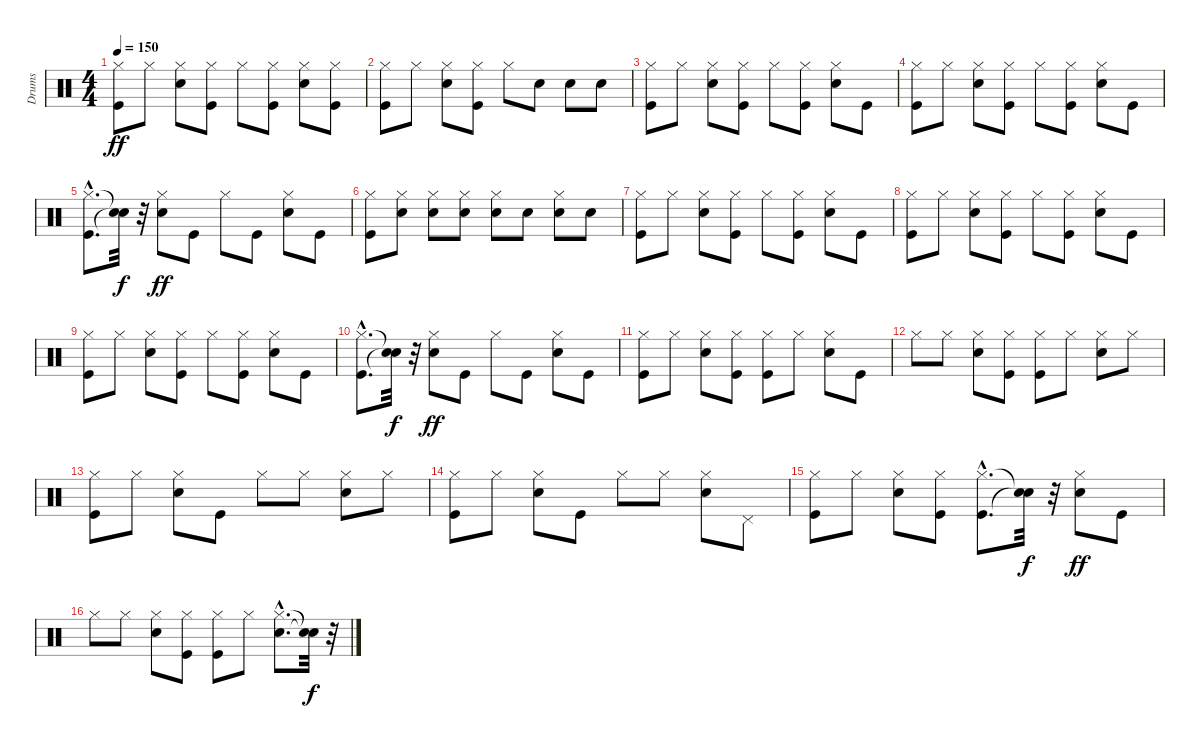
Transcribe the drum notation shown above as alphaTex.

\track ("Drums" "Drums") {instrument percussion}
\staff {score}
\articulation defaults
\ts (4 4)
\tempo 150
\clef neutral
\ks c
("Kick (hit)" "Hi-Hat (closed)").8{dy ff} "Hi-Hat (closed)".8 ("Snare (hit) 2" "Hi-Hat (closed)").8 ("Kick (hit)" "Hi-Hat (closed)").8 "Hi-Hat (closed)".8 ("Kick (hit)" "Hi-Hat (closed)").8 ("Snare (hit) 2" "Hi-Hat (closed)").8 ("Kick (hit)" "Hi-Hat (closed)").8 |
("Kick (hit)" "Hi-Hat (closed)").8 "Hi-Hat (closed)".8 ("Snare (hit) 2" "Hi-Hat (closed)").8 ("Kick (hit)" "Hi-Hat (closed)").8 "Hi-Hat (closed)".8 "Snare (hit) 2".8 "Snare (hit) 2".8 "Snare (hit) 2".8 |
("Kick (hit)" "Hi-Hat (closed)").8 "Hi-Hat (closed)".8 ("Snare (hit) 2" "Hi-Hat (closed)").8 ("Kick (hit)" "Hi-Hat (closed)").8 "Hi-Hat (closed)".8 ("Kick (hit)" "Hi-Hat (closed)").8 ("Snare (hit) 2" "Hi-Hat (closed)").8 "Kick (hit)".8 |
("Kick (hit)" "Hi-Hat (closed)").8 "Hi-Hat (closed)".8 ("Snare (hit) 2" "Hi-Hat (closed)").8 ("Kick (hit)" "Hi-Hat (closed)").8 "Hi-Hat (closed)".8 ("Kick (hit)" "Hi-Hat (closed)").8 ("Snare (hit) 2" "Hi-Hat (closed)").8 "Kick (hit)".8 |
("Kick (hit)"{hac} "Hi-Hat (closed)"{hac}).8{d} ("Snare (hit)"{t} "Snare (hit)"{t}).32{dy f} r.32 ("Snare (hit) 2" "Hi-Hat (closed)").8{dy ff} "Kick (hit)".8 "Hi-Hat (closed)".8 "Kick (hit)".8 ("Snare (hit) 2" "Hi-Hat (closed)").8 "Kick (hit)".8 |
("Kick (hit)" "Hi-Hat (closed)").8 ("Snare (hit) 2" "Hi-Hat (closed)").8 ("Snare (hit) 2" "Hi-Hat (closed)").8 ("Snare (hit) 2" "Hi-Hat (closed)").8 ("Snare (hit) 2" "Hi-Hat (closed)").8 "Snare (hit) 2".8 ("Snare (hit) 2" "Hi-Hat (closed)").8 "Snare (hit) 2".8 |
("Kick (hit)" "Hi-Hat (closed)").8 "Hi-Hat (closed)".8 ("Snare (hit) 2" "Hi-Hat (closed)").8 ("Kick (hit)" "Hi-Hat (closed)").8 "Hi-Hat (closed)".8 ("Kick (hit)" "Hi-Hat (closed)").8 ("Snare (hit) 2" "Hi-Hat (closed)").8 "Kick (hit)".8 |
("Kick (hit)" "Hi-Hat (closed)").8 "Hi-Hat (closed)".8 ("Snare (hit) 2" "Hi-Hat (closed)").8 ("Kick (hit)" "Hi-Hat (closed)").8 "Hi-Hat (closed)".8 ("Kick (hit)" "Hi-Hat (closed)").8 ("Snare (hit) 2" "Hi-Hat (closed)").8 "Kick (hit)".8 |
("Kick (hit)" "Hi-Hat (closed)").8 "Hi-Hat (closed)".8 ("Snare (hit) 2" "Hi-Hat (closed)").8 ("Kick (hit)" "Hi-Hat (closed)").8 "Hi-Hat (closed)".8 ("Kick (hit)" "Hi-Hat (closed)").8 ("Snare (hit) 2" "Hi-Hat (closed)").8 "Kick (hit)".8 |
("Kick (hit)"{hac} "Hi-Hat (closed)"{hac}).8{d} ("Snare (hit)"{t} "Snare (hit)"{t}).32{dy f} r.32 ("Snare (hit) 2" "Hi-Hat (closed)").8{dy ff} "Kick (hit)".8 "Hi-Hat (closed)".8 "Kick (hit)".8 ("Snare (hit) 2" "Hi-Hat (closed)").8 "Kick (hit)".8 |
("Kick (hit)" "Hi-Hat (closed)").8 "Hi-Hat (closed)".8 ("Snare (hit) 2" "Hi-Hat (closed)").8 ("Kick (hit)" "Hi-Hat (closed)").8 ("Kick (hit)" "Hi-Hat (closed)").8 "Hi-Hat (closed)".8 ("Snare (hit) 2" "Hi-Hat (closed)").8 "Kick (hit)".8 |
"Hi-Hat (closed)".8 "Hi-Hat (closed)".8 ("Snare (hit) 2" "Hi-Hat (closed)").8 ("Kick (hit)" "Hi-Hat (closed)").8 ("Kick (hit)" "Hi-Hat (closed)").8 "Hi-Hat (closed)".8 ("Snare (hit) 2" "Hi-Hat (closed)").8 "Hi-Hat (closed)".8 |
("Kick (hit)" "Hi-Hat (closed)").8 "Hi-Hat (closed)".8 ("Snare (hit) 2" "Hi-Hat (closed)").8 "Kick (hit)".8 "Hi-Hat (closed)".8 "Hi-Hat (closed)".8 ("Snare (hit) 2" "Hi-Hat (closed)").8 "Hi-Hat (closed)".8 |
("Kick (hit)" "Hi-Hat (closed)").8 "Hi-Hat (closed)".8 ("Snare (hit) 2" "Hi-Hat (closed)").8 "Kick (hit)".8 "Hi-Hat (closed)".8 "Hi-Hat (closed)".8 ("Snare (hit) 2" "Hi-Hat (closed)").8 "Pedal Hi-Hat (hit)".8 |
("Kick (hit)" "Hi-Hat (closed)").8 "Hi-Hat (closed)".8 ("Snare (hit) 2" "Hi-Hat (closed)").8 ("Kick (hit)" "Hi-Hat (closed)").8 ("Kick (hit)"{hac} "Hi-Hat (closed)"{hac}).8{d} ("Snare (hit)"{t} "Snare (hit)"{t}).32{dy f} r.32 ("Snare (hit) 2" "Hi-Hat (closed)").8{dy ff} "Kick (hit)".8 |
"Hi-Hat (closed)".8 "Hi-Hat (closed)".8 ("Snare (hit) 2" "Hi-Hat (closed)").8 ("Kick (hit)" "Hi-Hat (closed)").8 ("Kick (hit)" "Hi-Hat (closed)").8 "Hi-Hat (closed)".8 ("Snare (hit) 2"{hac} "Hi-Hat (closed)"{hac}).8{d} ("Snare (hit)"{t} "Snare (hit)"{t}).32{dy f} r.32
